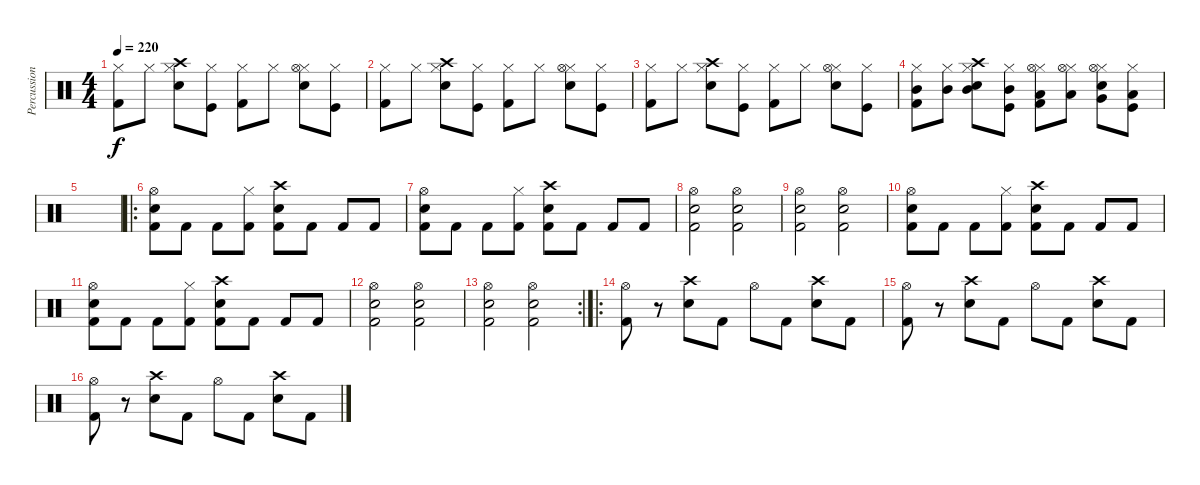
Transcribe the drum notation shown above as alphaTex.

\track ("Percussion" "Percussion") {instrument percussion}
\staff {score}
\articulation defaults
\ts (4 4)
\tempo 220
\clef neutral
\ks c
("Kick (hit) 2" "Hi-Hat (closed)").8{dy f} "Hi-Hat (closed)".8 ("Snare (hit) 2" "Hi-Hat (closed)" "Crash high (hit)").8 ("Kick (hit)" "Hi-Hat (closed)").8 ("Kick (hit) 2" "Hi-Hat (closed)").8 "Hi-Hat (closed)".8 ("Snare (hit) 2" "Hi-Hat (closed)" "Hi-Hat (open)").8 ("Kick (hit)" "Hi-Hat (closed)").8 |
("Kick (hit) 2" "Hi-Hat (closed)").8 "Hi-Hat (closed)".8 ("Snare (hit) 2" "Hi-Hat (closed)" "Crash high (hit)").8 ("Kick (hit)" "Hi-Hat (closed)").8 ("Kick (hit) 2" "Hi-Hat (closed)").8 "Hi-Hat (closed)".8 ("Snare (hit) 2" "Hi-Hat (closed)" "Hi-Hat (open)").8 ("Kick (hit)" "Hi-Hat (closed)").8 |
("Kick (hit) 2" "Hi-Hat (closed)").8 "Hi-Hat (closed)".8 ("Snare (hit) 2" "Hi-Hat (closed)" "Crash high (hit)").8 ("Kick (hit)" "Hi-Hat (closed)").8 ("Kick (hit) 2" "Hi-Hat (closed)").8 "Hi-Hat (closed)".8 ("Snare (hit) 2" "Hi-Hat (closed)" "Hi-Hat (open)").8 ("Kick (hit)" "Hi-Hat (closed)").8 |
("Kick (hit) 2" "Mid Tom (hit)" "Hi-Hat (closed)").8 ("Mid Tom (hit)" "Hi-Hat (closed)").8 ("Snare (hit) 2" "Mid Tom (hit)" "Hi-Hat (closed)" "Crash high (hit)").8 ("Kick (hit)" "Mid Tom (hit)" "Hi-Hat (closed)").8 ("Kick (hit) 2" "Low Tom (hit)" "Hi-Hat (closed)" "Hi-Hat (open)").8 ("Low Tom (hit)" "Hi-Hat (closed)" "Hi-Hat (open)").8 ("Snare (hit) 2" "Very Low Tom (hit)" "Hi-Hat (closed)" "Hi-Hat (open)").8 ("Kick (hit)" "Low Tom (hit)" "Hi-Hat (closed)").8 |
|
\ro
("Snare (hit) 2" "Hi-Hat (open)" "Kick (hit) 2").8 "Kick (hit) 2".8 "Kick (hit) 2".8 ("Hi-Hat (closed)" "Kick (hit) 2").8 ("Snare (hit) 2" "Crash high (hit)" "Kick (hit) 2").8 "Kick (hit) 2".8 "Kick (hit) 2".8 "Kick (hit) 2".8 |
("Snare (hit) 2" "Hi-Hat (open)" "Kick (hit) 2").8 "Kick (hit) 2".8 "Kick (hit) 2".8 ("Hi-Hat (closed)" "Kick (hit) 2").8 ("Snare (hit) 2" "Crash high (hit)" "Kick (hit) 2").8 "Kick (hit) 2".8 "Kick (hit) 2".8 "Kick (hit) 2".8 |
("Snare (hit) 2" "Hi-Hat (open)" "Kick (hit) 2").2 ("Snare (hit) 2" "Hi-Hat (open)" "Kick (hit) 2").2 |
("Snare (hit) 2" "Hi-Hat (open)" "Kick (hit) 2").2 ("Snare (hit) 2" "Hi-Hat (open)" "Kick (hit) 2").2 |
("Snare (hit) 2" "Hi-Hat (open)" "Kick (hit) 2").8 "Kick (hit) 2".8 "Kick (hit) 2".8 ("Hi-Hat (closed)" "Kick (hit) 2").8 ("Snare (hit) 2" "Crash high (hit)" "Kick (hit) 2").8 "Kick (hit) 2".8 "Kick (hit) 2".8 "Kick (hit) 2".8 |
("Snare (hit) 2" "Hi-Hat (open)" "Kick (hit) 2").8 "Kick (hit) 2".8 "Kick (hit) 2".8 ("Hi-Hat (closed)" "Kick (hit) 2").8 ("Snare (hit) 2" "Crash high (hit)" "Kick (hit) 2").8 "Kick (hit) 2".8 "Kick (hit) 2".8 "Kick (hit) 2".8 |
("Snare (hit) 2" "Hi-Hat (open)" "Kick (hit) 2").2 ("Snare (hit) 2" "Hi-Hat (open)" "Kick (hit) 2").2 |
\rc 2
("Snare (hit) 2" "Hi-Hat (open)" "Kick (hit) 2").2 ("Snare (hit) 2" "Hi-Hat (open)" "Kick (hit) 2").2 |
\ro
("Kick (hit) 2" "Hi-Hat (open)").8 r.8 ("Snare (hit) 2" "Crash high (hit)").8 "Kick (hit) 2".8 "Hi-Hat (open)".8 "Kick (hit) 2".8 ("Snare (hit) 2" "Crash high (hit)").8 "Kick (hit) 2".8 |
("Kick (hit) 2" "Hi-Hat (open)").8 r.8 ("Snare (hit) 2" "Crash high (hit)").8 "Kick (hit) 2".8 "Hi-Hat (open)".8 "Kick (hit) 2".8 ("Snare (hit) 2" "Crash high (hit)").8 "Kick (hit) 2".8 |
("Kick (hit) 2" "Hi-Hat (open)").8 r.8 ("Snare (hit) 2" "Crash high (hit)").8 "Kick (hit) 2".8 "Hi-Hat (open)".8 "Kick (hit) 2".8 ("Snare (hit) 2" "Crash high (hit)").8 "Kick (hit) 2".8
